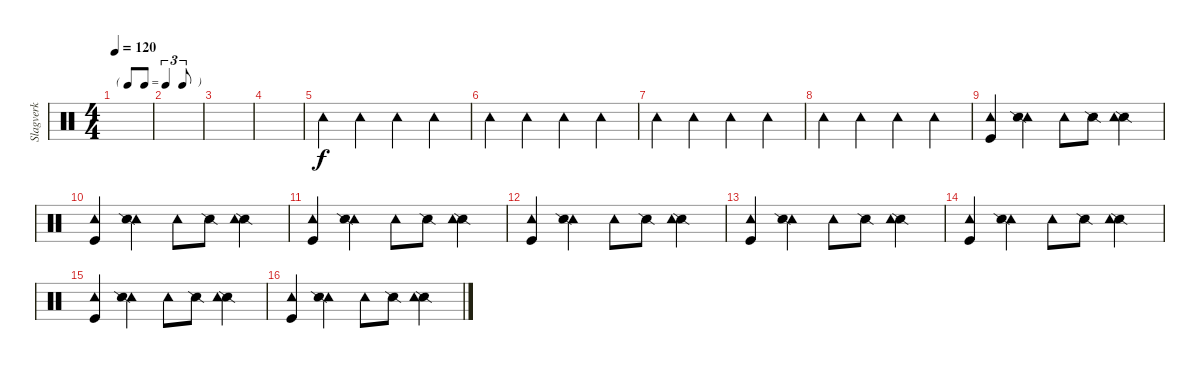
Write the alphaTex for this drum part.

\track ("Slagverk" "Slagverk") {instrument percussion}
\staff {score}
\articulation defaults
\ts (4 4)
\tf triplet8th
\tempo 120
\clef neutral
\ks c
|
|
|
|
"Tambourine (hit)".4 "Tambourine (hit)".4 "Tambourine (hit)".4 "Tambourine (hit)".4 |
"Tambourine (hit)".4 "Tambourine (hit)".4 "Tambourine (hit)".4 "Tambourine (hit)".4 |
"Tambourine (hit)".4 "Tambourine (hit)".4 "Tambourine (hit)".4 "Tambourine (hit)".4 |
"Tambourine (hit)".4 "Tambourine (hit)".4 "Tambourine (hit)".4 "Tambourine (hit)".4 |
("Tambourine (hit)" "Kick (hit)").4 ("Tambourine (hit)" "Snare (side stick) 2").4 "Tambourine (hit)".8 "Snare (side stick) 2".8 ("Snare (side stick) 2" "Tambourine (hit)").4 |
("Tambourine (hit)" "Kick (hit)").4 ("Tambourine (hit)" "Snare (side stick) 2").4 "Tambourine (hit)".8 "Snare (side stick) 2".8 ("Snare (side stick) 2" "Tambourine (hit)").4 |
("Tambourine (hit)" "Kick (hit)").4 ("Tambourine (hit)" "Snare (side stick) 2").4 "Tambourine (hit)".8 "Snare (side stick) 2".8 ("Snare (side stick) 2" "Tambourine (hit)").4 |
("Tambourine (hit)" "Kick (hit)").4 ("Tambourine (hit)" "Snare (side stick) 2").4 "Tambourine (hit)".8 "Snare (side stick) 2".8 ("Snare (side stick) 2" "Tambourine (hit)").4 |
("Tambourine (hit)" "Kick (hit)").4 ("Tambourine (hit)" "Snare (side stick) 2").4 "Tambourine (hit)".8 "Snare (side stick) 2".8 ("Snare (side stick) 2" "Tambourine (hit)").4 |
("Tambourine (hit)" "Kick (hit)").4 ("Tambourine (hit)" "Snare (side stick) 2").4 "Tambourine (hit)".8 "Snare (side stick) 2".8 ("Snare (side stick) 2" "Tambourine (hit)").4 |
("Tambourine (hit)" "Kick (hit)").4 ("Tambourine (hit)" "Snare (side stick) 2").4 "Tambourine (hit)".8 "Snare (side stick) 2".8 ("Snare (side stick) 2" "Tambourine (hit)").4 |
("Tambourine (hit)" "Kick (hit)").4 ("Tambourine (hit)" "Snare (side stick) 2").4 "Tambourine (hit)".8 "Snare (side stick) 2".8 ("Snare (side stick) 2" "Tambourine (hit)").4
